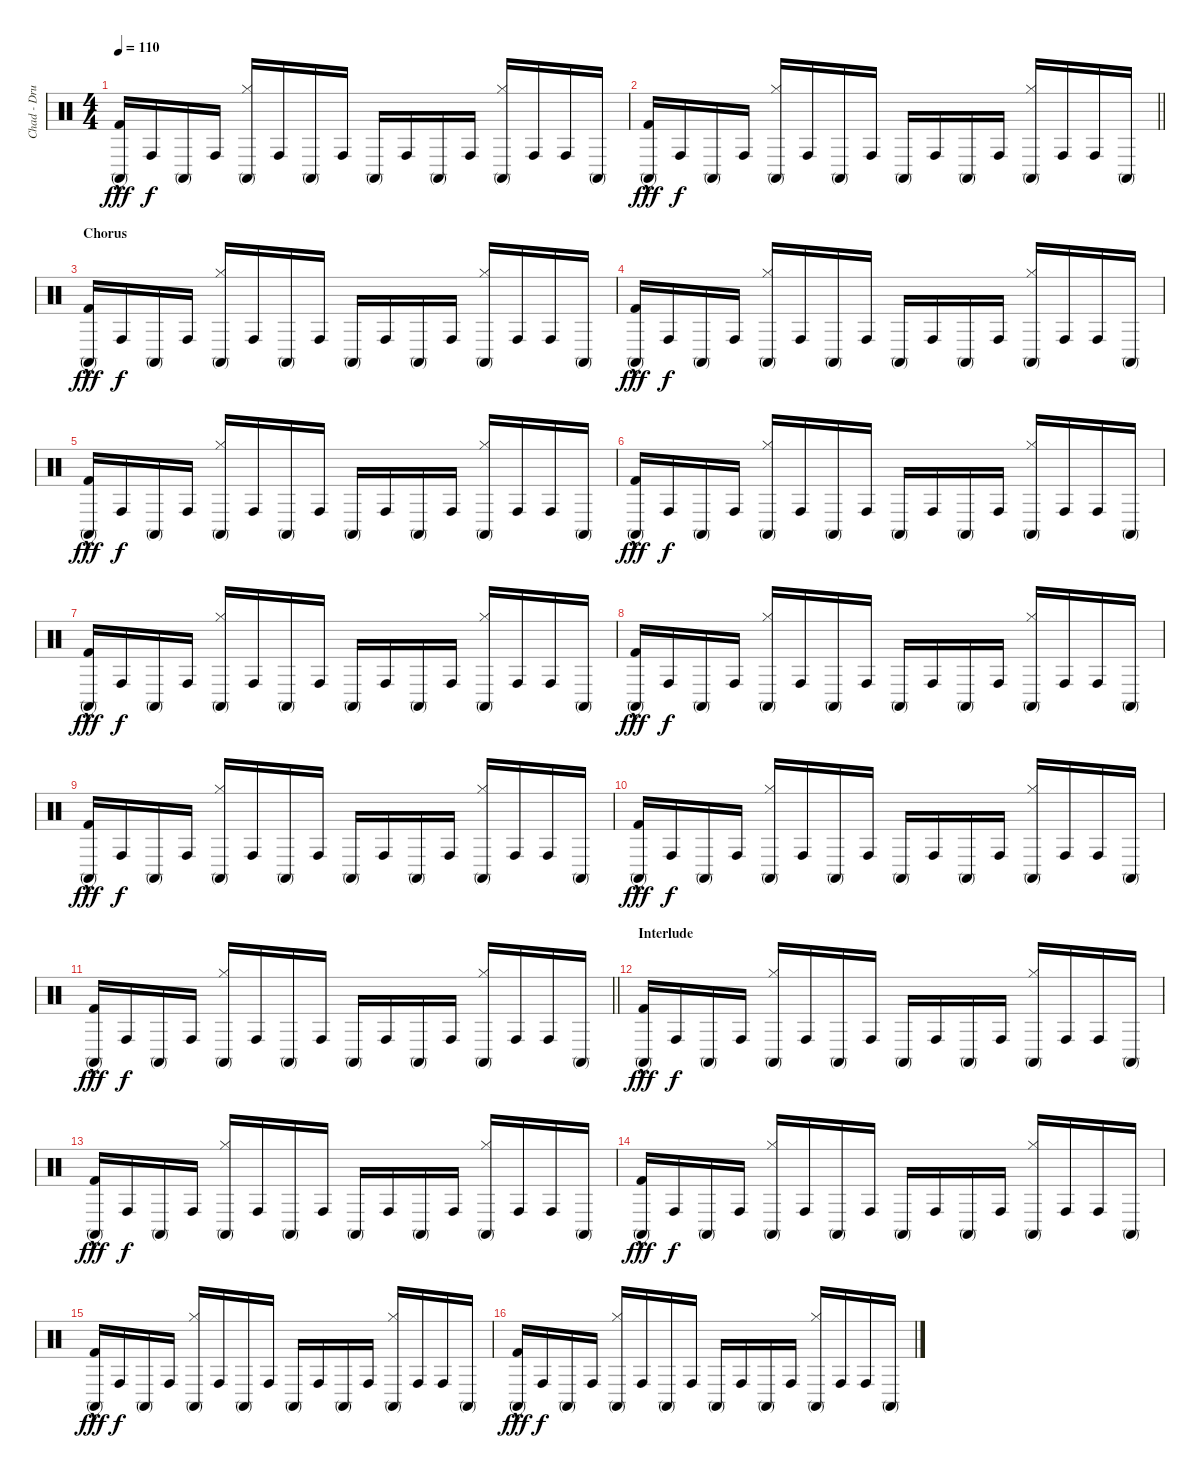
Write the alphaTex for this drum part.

\track ("Chad - Drums" "Chad - Dru") {instrument percussion}
\staff {score}
\articulation defaults
\ts (4 4)
\tempo 110
\clef neutral
\ks c
("Conga high (mute)" "Kick (hit) 2"{hac}).16{dy fff} "Conga high (hit)".16{dy f} "Conga high (mute)".16 "Conga high (hit)".16 ("Conga high (mute)" "Hi-Hat (closed)").16 "Conga high (hit)".16 "Conga high (mute)".16 "Conga high (hit)".16 "Conga high (mute)".16 "Conga high (hit)".16 "Conga high (mute)".16 "Conga high (hit)".16 ("Conga high (mute)" "Hi-Hat (closed)").16 "Conga high (hit)".16 "Conga high (hit)".16 "Conga high (mute)".16 |
\barLineRight lightlight
("Conga high (mute)" "Kick (hit) 2"{hac}).16{dy fff} "Conga high (hit)".16{dy f} "Conga high (mute)".16 "Conga high (hit)".16 ("Conga high (mute)" "Hi-Hat (closed)").16 "Conga high (hit)".16 "Conga high (mute)".16 "Conga high (hit)".16 "Conga high (mute)".16 "Conga high (hit)".16 "Conga high (mute)".16 "Conga high (hit)".16 ("Conga high (mute)" "Hi-Hat (closed)").16 "Conga high (hit)".16 "Conga high (hit)".16 "Conga high (mute)".16 |
\section ("" "Chorus")
("Conga high (mute)" "Kick (hit) 2"{hac}).16{dy fff} "Conga high (hit)".16{dy f} "Conga high (mute)".16 "Conga high (hit)".16 ("Conga high (mute)" "Hi-Hat (closed)").16 "Conga high (hit)".16 "Conga high (mute)".16 "Conga high (hit)".16 "Conga high (mute)".16 "Conga high (hit)".16 "Conga high (mute)".16 "Conga high (hit)".16 ("Conga high (mute)" "Hi-Hat (closed)").16 "Conga high (hit)".16 "Conga high (hit)".16 "Conga high (mute)".16 |
("Conga high (mute)" "Kick (hit) 2"{hac}).16{dy fff} "Conga high (hit)".16{dy f} "Conga high (mute)".16 "Conga high (hit)".16 ("Conga high (mute)" "Hi-Hat (closed)").16 "Conga high (hit)".16 "Conga high (mute)".16 "Conga high (hit)".16 "Conga high (mute)".16 "Conga high (hit)".16 "Conga high (mute)".16 "Conga high (hit)".16 ("Conga high (mute)" "Hi-Hat (closed)").16 "Conga high (hit)".16 "Conga high (hit)".16 "Conga high (mute)".16 |
("Conga high (mute)" "Kick (hit) 2"{hac}).16{dy fff} "Conga high (hit)".16{dy f} "Conga high (mute)".16 "Conga high (hit)".16 ("Conga high (mute)" "Hi-Hat (closed)").16 "Conga high (hit)".16 "Conga high (mute)".16 "Conga high (hit)".16 "Conga high (mute)".16 "Conga high (hit)".16 "Conga high (mute)".16 "Conga high (hit)".16 ("Conga high (mute)" "Hi-Hat (closed)").16 "Conga high (hit)".16 "Conga high (hit)".16 "Conga high (mute)".16 |
("Conga high (mute)" "Kick (hit) 2"{hac}).16{dy fff} "Conga high (hit)".16{dy f} "Conga high (mute)".16 "Conga high (hit)".16 ("Conga high (mute)" "Hi-Hat (closed)").16 "Conga high (hit)".16 "Conga high (mute)".16 "Conga high (hit)".16 "Conga high (mute)".16 "Conga high (hit)".16 "Conga high (mute)".16 "Conga high (hit)".16 ("Conga high (mute)" "Hi-Hat (closed)").16 "Conga high (hit)".16 "Conga high (hit)".16 "Conga high (mute)".16 |
("Conga high (mute)" "Kick (hit) 2"{hac}).16{dy fff} "Conga high (hit)".16{dy f} "Conga high (mute)".16 "Conga high (hit)".16 ("Conga high (mute)" "Hi-Hat (closed)").16 "Conga high (hit)".16 "Conga high (mute)".16 "Conga high (hit)".16 "Conga high (mute)".16 "Conga high (hit)".16 "Conga high (mute)".16 "Conga high (hit)".16 ("Conga high (mute)" "Hi-Hat (closed)").16 "Conga high (hit)".16 "Conga high (hit)".16 "Conga high (mute)".16 |
("Conga high (mute)" "Kick (hit) 2"{hac}).16{dy fff} "Conga high (hit)".16{dy f} "Conga high (mute)".16 "Conga high (hit)".16 ("Conga high (mute)" "Hi-Hat (closed)").16 "Conga high (hit)".16 "Conga high (mute)".16 "Conga high (hit)".16 "Conga high (mute)".16 "Conga high (hit)".16 "Conga high (mute)".16 "Conga high (hit)".16 ("Conga high (mute)" "Hi-Hat (closed)").16 "Conga high (hit)".16 "Conga high (hit)".16 "Conga high (mute)".16 |
("Conga high (mute)" "Kick (hit) 2"{hac}).16{dy fff} "Conga high (hit)".16{dy f} "Conga high (mute)".16 "Conga high (hit)".16 ("Conga high (mute)" "Hi-Hat (closed)").16 "Conga high (hit)".16 "Conga high (mute)".16 "Conga high (hit)".16 "Conga high (mute)".16 "Conga high (hit)".16 "Conga high (mute)".16 "Conga high (hit)".16 ("Conga high (mute)" "Hi-Hat (closed)").16 "Conga high (hit)".16 "Conga high (hit)".16 "Conga high (mute)".16 |
("Conga high (mute)" "Kick (hit) 2"{hac}).16{dy fff} "Conga high (hit)".16{dy f} "Conga high (mute)".16 "Conga high (hit)".16 ("Conga high (mute)" "Hi-Hat (closed)").16 "Conga high (hit)".16 "Conga high (mute)".16 "Conga high (hit)".16 "Conga high (mute)".16 "Conga high (hit)".16 "Conga high (mute)".16 "Conga high (hit)".16 ("Conga high (mute)" "Hi-Hat (closed)").16 "Conga high (hit)".16 "Conga high (hit)".16 "Conga high (mute)".16 |
\barLineRight lightlight
("Conga high (mute)" "Kick (hit) 2"{hac}).16{dy fff} "Conga high (hit)".16{dy f} "Conga high (mute)".16 "Conga high (hit)".16 ("Conga high (mute)" "Hi-Hat (closed)").16 "Conga high (hit)".16 "Conga high (mute)".16 "Conga high (hit)".16 "Conga high (mute)".16 "Conga high (hit)".16 "Conga high (mute)".16 "Conga high (hit)".16 ("Conga high (mute)" "Hi-Hat (closed)").16 "Conga high (hit)".16 "Conga high (hit)".16 "Conga high (mute)".16 |
\section ("" "Interlude")
("Conga high (mute)" "Kick (hit) 2"{hac}).16{dy fff} "Conga high (hit)".16{dy f} "Conga high (mute)".16 "Conga high (hit)".16 ("Conga high (mute)" "Hi-Hat (closed)").16 "Conga high (hit)".16 "Conga high (mute)".16 "Conga high (hit)".16 "Conga high (mute)".16 "Conga high (hit)".16 "Conga high (mute)".16 "Conga high (hit)".16 ("Conga high (mute)" "Hi-Hat (closed)").16 "Conga high (hit)".16 "Conga high (hit)".16 "Conga high (mute)".16 |
("Conga high (mute)" "Kick (hit) 2"{hac}).16{dy fff} "Conga high (hit)".16{dy f} "Conga high (mute)".16 "Conga high (hit)".16 ("Conga high (mute)" "Hi-Hat (closed)").16 "Conga high (hit)".16 "Conga high (mute)".16 "Conga high (hit)".16 "Conga high (mute)".16 "Conga high (hit)".16 "Conga high (mute)".16 "Conga high (hit)".16 ("Conga high (mute)" "Hi-Hat (closed)").16 "Conga high (hit)".16 "Conga high (hit)".16 "Conga high (mute)".16 |
("Conga high (mute)" "Kick (hit) 2"{hac}).16{dy fff} "Conga high (hit)".16{dy f} "Conga high (mute)".16 "Conga high (hit)".16 ("Conga high (mute)" "Hi-Hat (closed)").16 "Conga high (hit)".16 "Conga high (mute)".16 "Conga high (hit)".16 "Conga high (mute)".16 "Conga high (hit)".16 "Conga high (mute)".16 "Conga high (hit)".16 ("Conga high (mute)" "Hi-Hat (closed)").16 "Conga high (hit)".16 "Conga high (hit)".16 "Conga high (mute)".16 |
("Conga high (mute)" "Kick (hit) 2"{hac}).16{dy fff} "Conga high (hit)".16{dy f} "Conga high (mute)".16 "Conga high (hit)".16 ("Conga high (mute)" "Hi-Hat (closed)").16 "Conga high (hit)".16 "Conga high (mute)".16 "Conga high (hit)".16 "Conga high (mute)".16 "Conga high (hit)".16 "Conga high (mute)".16 "Conga high (hit)".16 ("Conga high (mute)" "Hi-Hat (closed)").16 "Conga high (hit)".16 "Conga high (hit)".16 "Conga high (mute)".16 |
("Conga high (mute)" "Kick (hit) 2"{hac}).16{dy fff} "Conga high (hit)".16{dy f} "Conga high (mute)".16 "Conga high (hit)".16 ("Conga high (mute)" "Hi-Hat (closed)").16 "Conga high (hit)".16 "Conga high (mute)".16 "Conga high (hit)".16 "Conga high (mute)".16 "Conga high (hit)".16 "Conga high (mute)".16 "Conga high (hit)".16 ("Conga high (mute)" "Hi-Hat (closed)").16 "Conga high (hit)".16 "Conga high (hit)".16 "Conga high (mute)".16
